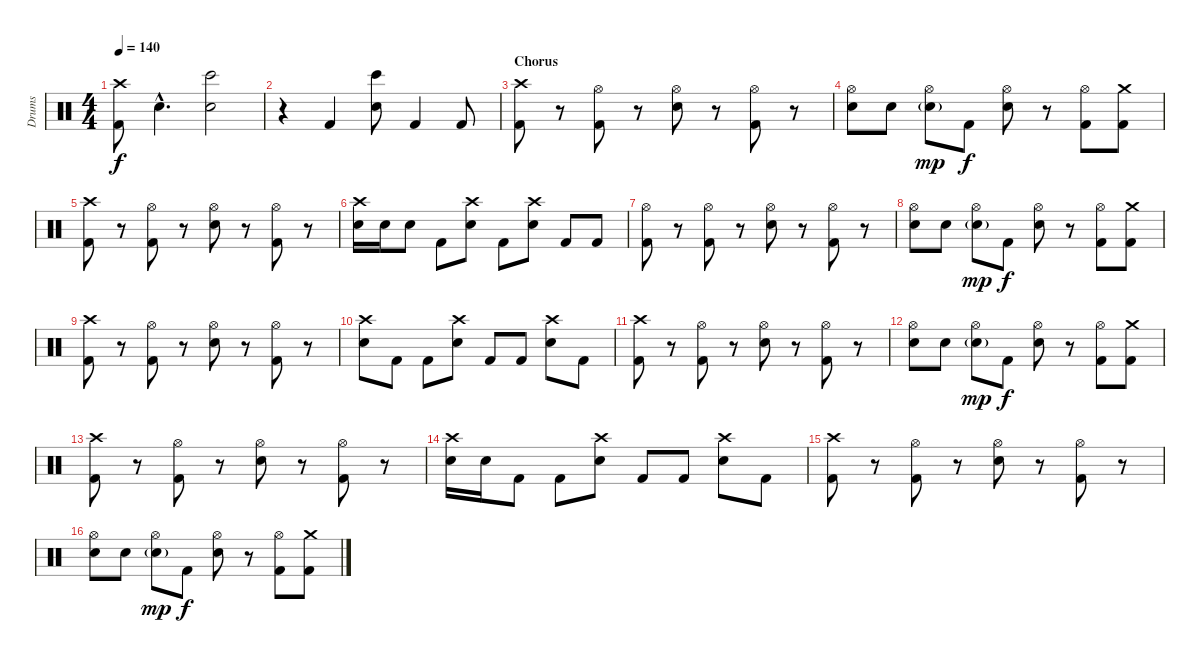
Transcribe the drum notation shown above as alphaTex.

\track ("Drums" "Drums") {instrument percussion}
\staff {score}
\articulation defaults
\ts (4 4)
\tempo 140
\clef neutral
\ks c
("Crash high (hit)" "Kick (hit) 2").8{dy f} "Snare (hit)"{hac x}.4{d} ("Bongo High (hit)" "Snare (hit) 2").2 |
r.4 "Kick (hit) 2".4 ("Bongo High (hit)" "Snare (hit) 2").8 "Kick (hit) 2".4 "Kick (hit) 2".8 |
\section ("" "Chorus")
("Crash high (hit)" "Kick (hit) 2").8 r.8 ("Hi-Hat (open)" "Kick (hit) 2").8 r.8 ("Hi-Hat (open)" "Snare (hit) 2").8 r.8 ("Hi-Hat (open)" "Kick (hit) 2").8 r.8 |
("Hi-Hat (open)" "Snare (hit) 2").8 "Snare (hit) 2".8 ("Hi-Hat (open)" "Snare (hit) 2"{g}).8{dy mp} "Kick (hit) 2".8{dy f} ("Hi-Hat (open)" "Snare (hit) 2").8 r.8 ("Hi-Hat (open)" "Kick (hit) 2").8 ("Crash medium (hit)" "Kick (hit) 2").8 |
("Crash high (hit)" "Kick (hit) 2").8 r.8 ("Hi-Hat (open)" "Kick (hit) 2").8 r.8 ("Hi-Hat (open)" "Snare (hit) 2").8 r.8 ("Hi-Hat (open)" "Kick (hit) 2").8 r.8 |
("Crash high (hit)" "Snare (hit) 2").16 "Snare (hit) 2".16 "Snare (hit) 2".8 "Kick (hit) 2".8 ("Crash high (hit)" "Snare (hit) 2").8 "Kick (hit) 2".8 ("Crash high (hit)" "Snare (hit) 2").8 "Kick (hit) 2".8 "Kick (hit) 2".8 |
("Hi-Hat (open)" "Kick (hit) 2").8 r.8 ("Hi-Hat (open)" "Kick (hit) 2").8 r.8 ("Hi-Hat (open)" "Snare (hit) 2").8 r.8 ("Hi-Hat (open)" "Kick (hit) 2").8 r.8 |
("Hi-Hat (open)" "Snare (hit) 2").8 "Snare (hit) 2".8 ("Hi-Hat (open)" "Snare (hit) 2"{g}).8{dy mp} "Kick (hit) 2".8{dy f} ("Hi-Hat (open)" "Snare (hit) 2").8 r.8 ("Hi-Hat (open)" "Kick (hit) 2").8 ("Crash medium (hit)" "Kick (hit) 2").8 |
("Crash high (hit)" "Kick (hit) 2").8 r.8 ("Hi-Hat (open)" "Kick (hit) 2").8 r.8 ("Hi-Hat (open)" "Snare (hit) 2").8 r.8 ("Hi-Hat (open)" "Kick (hit) 2").8 r.8 |
("Crash high (hit)" "Snare (hit) 2").8 "Kick (hit) 2".8 "Kick (hit) 2".8 ("Crash high (hit)" "Snare (hit) 2").8 "Kick (hit) 2".8 "Kick (hit) 2".8 ("Crash high (hit)" "Snare (hit) 2").8 "Kick (hit) 2".8 |
("Crash high (hit)" "Kick (hit) 2").8 r.8 ("Hi-Hat (open)" "Kick (hit) 2").8 r.8 ("Hi-Hat (open)" "Snare (hit) 2").8 r.8 ("Hi-Hat (open)" "Kick (hit) 2").8 r.8 |
("Hi-Hat (open)" "Snare (hit) 2").8 "Snare (hit) 2".8 ("Hi-Hat (open)" "Snare (hit) 2"{g}).8{dy mp} "Kick (hit) 2".8{dy f} ("Hi-Hat (open)" "Snare (hit) 2").8 r.8 ("Hi-Hat (open)" "Kick (hit) 2").8 ("Crash medium (hit)" "Kick (hit) 2").8 |
("Crash high (hit)" "Kick (hit) 2").8 r.8 ("Hi-Hat (open)" "Kick (hit) 2").8 r.8 ("Hi-Hat (open)" "Snare (hit) 2").8 r.8 ("Hi-Hat (open)" "Kick (hit) 2").8 r.8 |
("Crash high (hit)" "Snare (hit) 2").16 "Snare (hit) 2".16 "Kick (hit) 2".8 "Kick (hit) 2".8 ("Crash high (hit)" "Snare (hit) 2").8 "Kick (hit) 2".8 "Kick (hit) 2".8 ("Crash high (hit)" "Snare (hit) 2").8 "Kick (hit) 2".8 |
("Crash high (hit)" "Kick (hit) 2").8 r.8 ("Hi-Hat (open)" "Kick (hit) 2").8 r.8 ("Hi-Hat (open)" "Snare (hit) 2").8 r.8 ("Hi-Hat (open)" "Kick (hit) 2").8 r.8 |
("Hi-Hat (open)" "Snare (hit) 2").8 "Snare (hit) 2".8 ("Hi-Hat (open)" "Snare (hit) 2"{g}).8{dy mp} "Kick (hit) 2".8{dy f} ("Hi-Hat (open)" "Snare (hit) 2").8 r.8 ("Hi-Hat (open)" "Kick (hit) 2").8 ("Crash medium (hit)" "Kick (hit) 2").8
